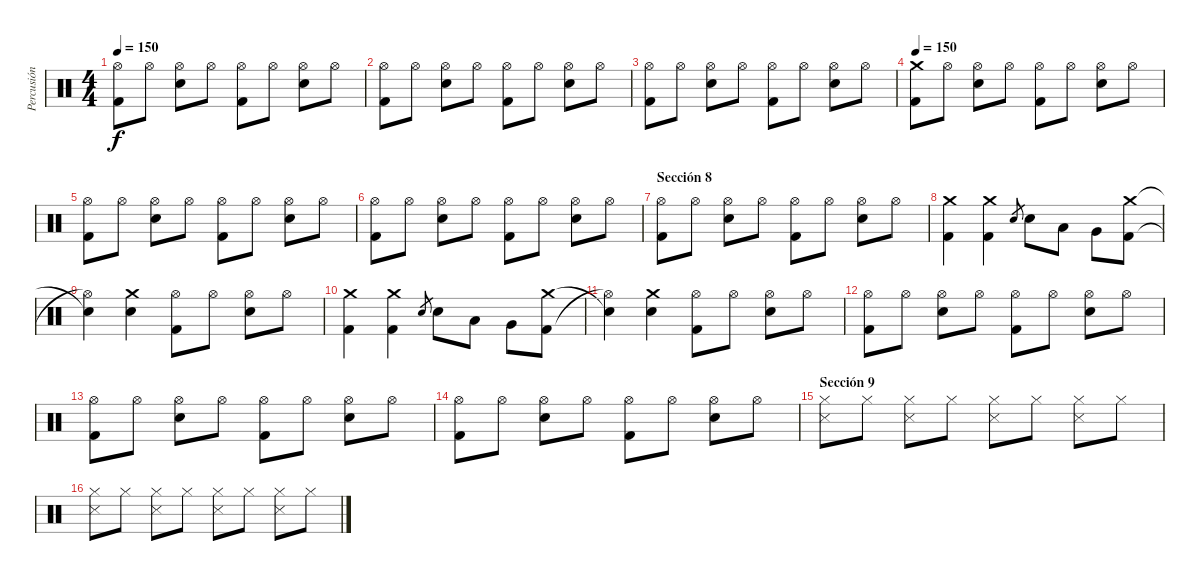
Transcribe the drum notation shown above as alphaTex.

\track ("Percusión" "Percusión") {instrument percussion}
\staff {score}
\articulation defaults
\ts (4 4)
\tempo 150
\clef neutral
\ks c
("Hi-Hat (open)" "Kick (hit) 2").8{dy f} "Hi-Hat (open)".8 ("Hi-Hat (open)" "Snare (hit) 2").8 "Hi-Hat (open)".8 ("Hi-Hat (open)" "Kick (hit) 2").8 "Hi-Hat (open)".8 ("Hi-Hat (open)" "Snare (hit) 2").8 "Hi-Hat (open)".8 |
("Hi-Hat (open)" "Kick (hit) 2").8 "Hi-Hat (open)".8 ("Hi-Hat (open)" "Snare (hit) 2").8 "Hi-Hat (open)".8 ("Hi-Hat (open)" "Kick (hit) 2").8 "Hi-Hat (open)".8 ("Hi-Hat (open)" "Snare (hit) 2").8 "Hi-Hat (open)".8 |
("Hi-Hat (open)" "Kick (hit) 2").8 "Hi-Hat (open)".8 ("Hi-Hat (open)" "Snare (hit) 2").8 "Hi-Hat (open)".8 ("Hi-Hat (open)" "Kick (hit) 2").8 "Hi-Hat (open)".8 ("Hi-Hat (open)" "Snare (hit) 2").8 "Hi-Hat (open)".8 |
\tempo 150
("Crash medium (hit)" "Kick (hit) 2").8 "Hi-Hat (open)".8 ("Hi-Hat (open)" "Snare (hit) 2").8 "Hi-Hat (open)".8 ("Hi-Hat (open)" "Kick (hit) 2").8 "Hi-Hat (open)".8 ("Hi-Hat (open)" "Snare (hit) 2").8 "Hi-Hat (open)".8 |
("Hi-Hat (open)" "Kick (hit) 2").8 "Hi-Hat (open)".8 ("Hi-Hat (open)" "Snare (hit) 2").8 "Hi-Hat (open)".8 ("Hi-Hat (open)" "Kick (hit) 2").8 "Hi-Hat (open)".8 ("Hi-Hat (open)" "Snare (hit) 2").8 "Hi-Hat (open)".8 |
("Hi-Hat (open)" "Kick (hit) 2").8 "Hi-Hat (open)".8 ("Hi-Hat (open)" "Snare (hit) 2").8 "Hi-Hat (open)".8 ("Hi-Hat (open)" "Kick (hit) 2").8 "Hi-Hat (open)".8 ("Hi-Hat (open)" "Snare (hit) 2").8 "Hi-Hat (open)".8 |
\section ("" "Sección 8")
("Hi-Hat (open)" "Kick (hit) 2").8 "Hi-Hat (open)".8 ("Hi-Hat (open)" "Snare (hit) 2").8 "Hi-Hat (open)".8 ("Hi-Hat (open)" "Kick (hit) 2").8 "Hi-Hat (open)".8 ("Hi-Hat (open)" "Snare (hit) 2").8 "Hi-Hat (open)".8 |
("Crash medium (hit)" "Kick (hit) 2").4 ("Crash medium (hit)" "Kick (hit) 2").4 "Snare (hit) 2".8{gr} "Snare (hit) 2".8 "Low Tom (hit)".8 "Very Low Tom (hit)".8 ("Kick (hit) 2" "Crash medium (hit)").8 |
("Hi-Hat (open)"{t} "Snare (hit)"{t}).4 ("Crash medium (hit)" "Snare (hit) 2").4 ("Hi-Hat (open)" "Kick (hit) 2").8 "Hi-Hat (open)".8 ("Hi-Hat (open)" "Snare (hit) 2").8 "Hi-Hat (open)".8 |
("Crash medium (hit)" "Kick (hit) 2").4 ("Crash medium (hit)" "Kick (hit) 2").4 "Snare (hit) 2".8{gr} "Snare (hit) 2".8 "Low Tom (hit)".8 "Very Low Tom (hit)".8 ("Kick (hit) 2" "Crash medium (hit)").8 |
("Hi-Hat (open)"{t} "Snare (hit)"{t}).4 ("Crash medium (hit)" "Snare (hit) 2").4 ("Hi-Hat (open)" "Kick (hit) 2").8 "Hi-Hat (open)".8 ("Hi-Hat (open)" "Snare (hit) 2").8 "Hi-Hat (open)".8 |
("Hi-Hat (open)" "Kick (hit) 2").8 "Hi-Hat (open)".8 ("Hi-Hat (open)" "Snare (hit) 2").8 "Hi-Hat (open)".8 ("Hi-Hat (open)" "Kick (hit) 2").8 "Hi-Hat (open)".8 ("Hi-Hat (open)" "Snare (hit) 2").8 "Hi-Hat (open)".8 |
("Hi-Hat (open)" "Kick (hit) 2").8 "Hi-Hat (open)".8 ("Hi-Hat (open)" "Snare (hit) 2").8 "Hi-Hat (open)".8 ("Hi-Hat (open)" "Kick (hit) 2").8 "Hi-Hat (open)".8 ("Hi-Hat (open)" "Snare (hit) 2").8 "Hi-Hat (open)".8 |
("Hi-Hat (open)" "Kick (hit) 2").8 "Hi-Hat (open)".8 ("Hi-Hat (open)" "Snare (hit) 2").8 "Hi-Hat (open)".8 ("Hi-Hat (open)" "Kick (hit) 2").8 "Hi-Hat (open)".8 ("Hi-Hat (open)" "Snare (hit) 2").8 "Hi-Hat (open)".8 |
\section ("" "Sección 9")
("Hi-Hat (closed)" "Metronome (hit)").8 "Hi-Hat (closed)".8 ("Hi-Hat (closed)" "Metronome (hit)").8 "Hi-Hat (closed)".8 ("Hi-Hat (closed)" "Metronome (hit)").8 "Hi-Hat (closed)".8 ("Hi-Hat (closed)" "Metronome (hit)").8 "Hi-Hat (closed)".8 |
("Hi-Hat (closed)" "Metronome (hit)").8 "Hi-Hat (closed)".8 ("Hi-Hat (closed)" "Metronome (hit)").8 "Hi-Hat (closed)".8 ("Hi-Hat (closed)" "Metronome (hit)").8 "Hi-Hat (closed)".8 ("Hi-Hat (closed)" "Metronome (hit)").8 "Hi-Hat (closed)".8
